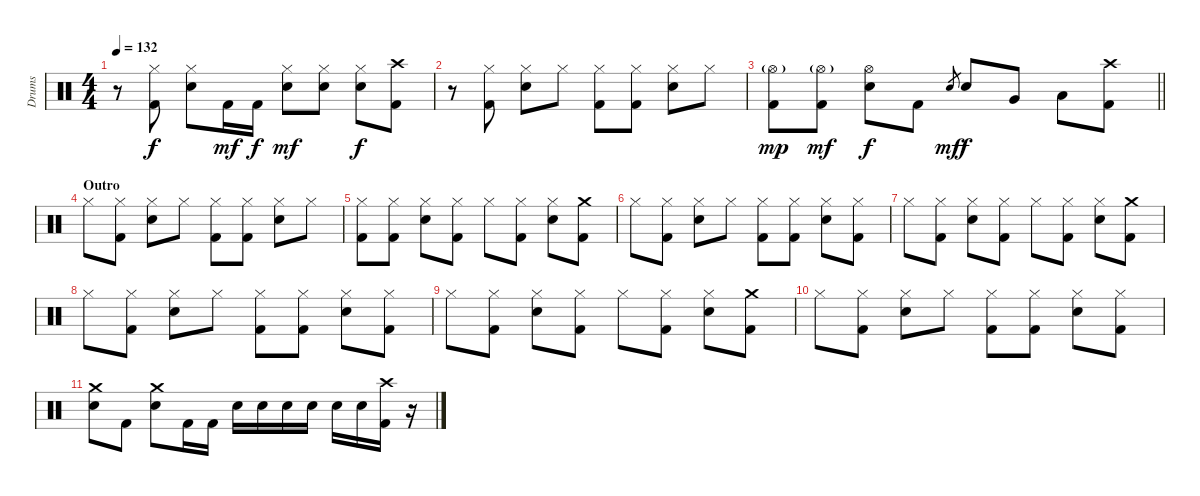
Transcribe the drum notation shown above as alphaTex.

\track ("Drums" "Drums") {instrument percussion}
\staff {score}
\articulation defaults
\ts (4 4)
\tempo 132
\clef neutral
\ks c
r.8{dy f} ("Hi-Hat (closed)" "Kick (hit) 2").8 ("Hi-Hat (closed)" "Electric Snare (hit)").8 "Kick (hit) 2".16{dy mf} "Kick (hit) 2".16{dy f} ("Hi-Hat (closed)" "Electric Snare (hit)").8{dy mf} ("Hi-Hat (closed)" "Electric Snare (hit)").8 ("Hi-Hat (closed)" "Electric Snare (hit)").8{dy f} ("Crash high (hit)" "Kick (hit) 2").8 |
r.8 ("Hi-Hat (closed)" "Kick (hit) 2").8 ("Hi-Hat (closed)" "Electric Snare (hit)").8 "Hi-Hat (closed)".8 ("Hi-Hat (closed)" "Kick (hit) 2").8 ("Hi-Hat (closed)" "Kick (hit) 2").8 ("Hi-Hat (closed)" "Electric Snare (hit)").8 "Hi-Hat (closed)".8 |
\barLineRight lightlight
("Hi-Hat (open)"{g} "Kick (hit) 2").8{dy mp} ("Hi-Hat (open)"{g} "Kick (hit) 2").8{dy mf} ("Hi-Hat (open)" "Electric Snare (hit)").8{dy f} "Kick (hit) 2".8 "Electric Snare (hit)".8{gr dy mf} "Electric Snare (hit)".8{dy f} "Very Low Tom (hit)".8 "Low Tom (hit)".8 ("Crash high (hit)" "Kick (hit) 2").8 |
\section ("" "Outro")
"Hi-Hat (closed)".8 ("Hi-Hat (closed)" "Kick (hit) 2").8 ("Hi-Hat (closed)" "Electric Snare (hit)").8 "Hi-Hat (closed)".8 ("Hi-Hat (closed)" "Kick (hit) 2").8 ("Hi-Hat (closed)" "Kick (hit) 2").8 ("Hi-Hat (closed)" "Electric Snare (hit)").8 "Hi-Hat (closed)".8 |
("Hi-Hat (closed)" "Kick (hit) 2").8 ("Hi-Hat (closed)" "Kick (hit) 2").8 ("Hi-Hat (closed)" "Electric Snare (hit)").8 ("Hi-Hat (closed)" "Kick (hit) 2").8 "Hi-Hat (closed)".8 ("Hi-Hat (closed)" "Kick (hit) 2").8 ("Hi-Hat (closed)" "Electric Snare (hit)").8 ("Crash medium (hit)" "Kick (hit) 2").8 |
"Hi-Hat (closed)".8 ("Hi-Hat (closed)" "Kick (hit) 2").8 ("Hi-Hat (closed)" "Electric Snare (hit)").8 "Hi-Hat (closed)".8 ("Hi-Hat (closed)" "Kick (hit) 2").8 ("Hi-Hat (closed)" "Kick (hit) 2").8 ("Hi-Hat (closed)" "Electric Snare (hit)").8 ("Hi-Hat (closed)" "Kick (hit) 2").8 |
"Hi-Hat (closed)".8 ("Hi-Hat (closed)" "Kick (hit) 2").8 ("Hi-Hat (closed)" "Electric Snare (hit)").8 ("Hi-Hat (closed)" "Kick (hit) 2").8 "Hi-Hat (closed)".8 ("Hi-Hat (closed)" "Kick (hit) 2").8 ("Hi-Hat (closed)" "Electric Snare (hit)").8 ("Crash medium (hit)" "Kick (hit) 2").8 |
"Hi-Hat (closed)".8 ("Hi-Hat (closed)" "Kick (hit) 2").8 ("Hi-Hat (closed)" "Electric Snare (hit)").8 "Hi-Hat (closed)".8 ("Hi-Hat (closed)" "Kick (hit) 2").8 ("Hi-Hat (closed)" "Kick (hit) 2").8 ("Hi-Hat (closed)" "Electric Snare (hit)").8 ("Hi-Hat (closed)" "Kick (hit) 2").8 |
"Hi-Hat (closed)".8 ("Hi-Hat (closed)" "Kick (hit) 2").8 ("Hi-Hat (closed)" "Electric Snare (hit)").8 ("Hi-Hat (closed)" "Kick (hit) 2").8 "Hi-Hat (closed)".8 ("Hi-Hat (closed)" "Kick (hit) 2").8 ("Hi-Hat (closed)" "Electric Snare (hit)").8 ("Crash medium (hit)" "Kick (hit) 2").8 |
"Hi-Hat (closed)".8 ("Hi-Hat (closed)" "Kick (hit) 2").8 ("Hi-Hat (closed)" "Electric Snare (hit)").8 "Hi-Hat (closed)".8 ("Hi-Hat (closed)" "Kick (hit) 2").8 ("Hi-Hat (closed)" "Kick (hit) 2").8 ("Hi-Hat (closed)" "Electric Snare (hit)").8 ("Hi-Hat (closed)" "Kick (hit) 2").8 |
("Crash medium (hit)" "Electric Snare (hit)").8 "Kick (hit) 2".8 ("Crash medium (hit)" "Electric Snare (hit)").8 "Kick (hit) 2".16 "Kick (hit) 2".16 "Electric Snare (hit)".16 "Electric Snare (hit)".16 "Electric Snare (hit)".16 "Electric Snare (hit)".16 "Electric Snare (hit)".16 "Electric Snare (hit)".16 ("Crash high (hit)" "Kick (hit) 2").16 r.16
